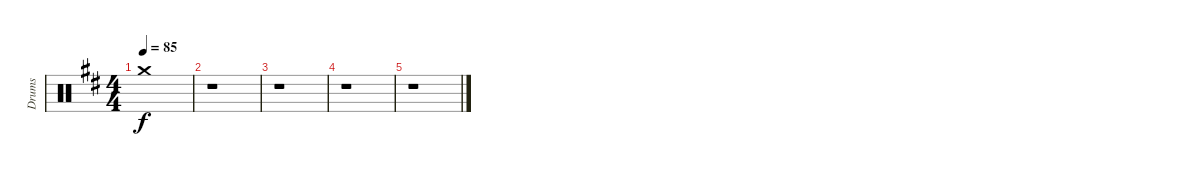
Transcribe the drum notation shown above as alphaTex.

\track ("Drums" "Drums") {instrument percussion}
\staff {score}
\articulation defaults
\ts (4 4)
\tempo 85
\clef neutral
\ks d "Crash medium (hit)".1{dy f}
|
r.1 |
r.1 |
r.1 |
r.1
